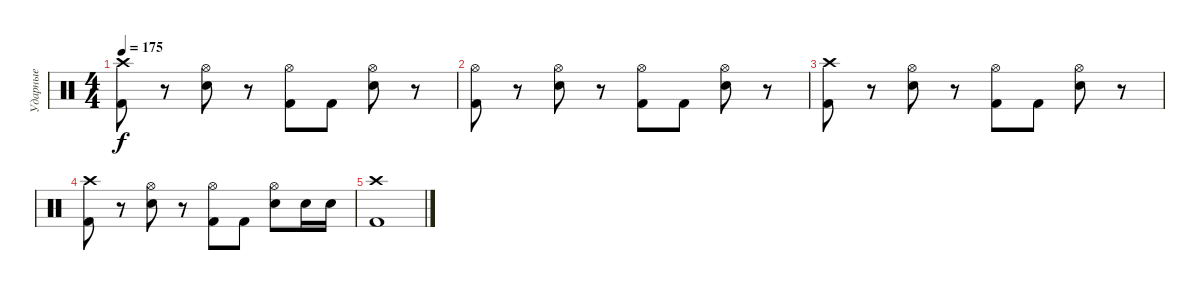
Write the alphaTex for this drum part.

\track ("Ударные" "Ударные") {instrument percussion}
\staff {score}
\articulation defaults
\ts (4 4)
\tempo 175
\clef neutral
\ks c
("Kick (hit) 2" "Crash high (hit)").8{dy f} r.8 ("Electric Snare (hit)" "Hi-Hat (open)").8 r.8 ("Kick (hit) 2" "Hi-Hat (open)").8 "Kick (hit) 2".8 ("Electric Snare (hit)" "Hi-Hat (open)").8 r.8 |
("Kick (hit) 2" "Hi-Hat (open)").8 r.8 ("Electric Snare (hit)" "Hi-Hat (open)").8 r.8 ("Kick (hit) 2" "Hi-Hat (open)").8 "Kick (hit) 2".8 ("Electric Snare (hit)" "Hi-Hat (open)").8 r.8 |
("Kick (hit) 2" "Crash high (hit)").8 r.8 ("Electric Snare (hit)" "Hi-Hat (open)").8 r.8 ("Kick (hit) 2" "Hi-Hat (open)").8 "Kick (hit) 2".8 ("Electric Snare (hit)" "Hi-Hat (open)").8 r.8 |
("Kick (hit) 2" "Crash high (hit)").8 r.8 ("Electric Snare (hit)" "Hi-Hat (open)").8 r.8 ("Kick (hit) 2" "Hi-Hat (open)").8 "Kick (hit) 2".8 ("Electric Snare (hit)" "Hi-Hat (open)").8 "Electric Snare (hit)".16 "Electric Snare (hit)".16 |
("Kick (hit) 2" "Crash high (hit)").1
